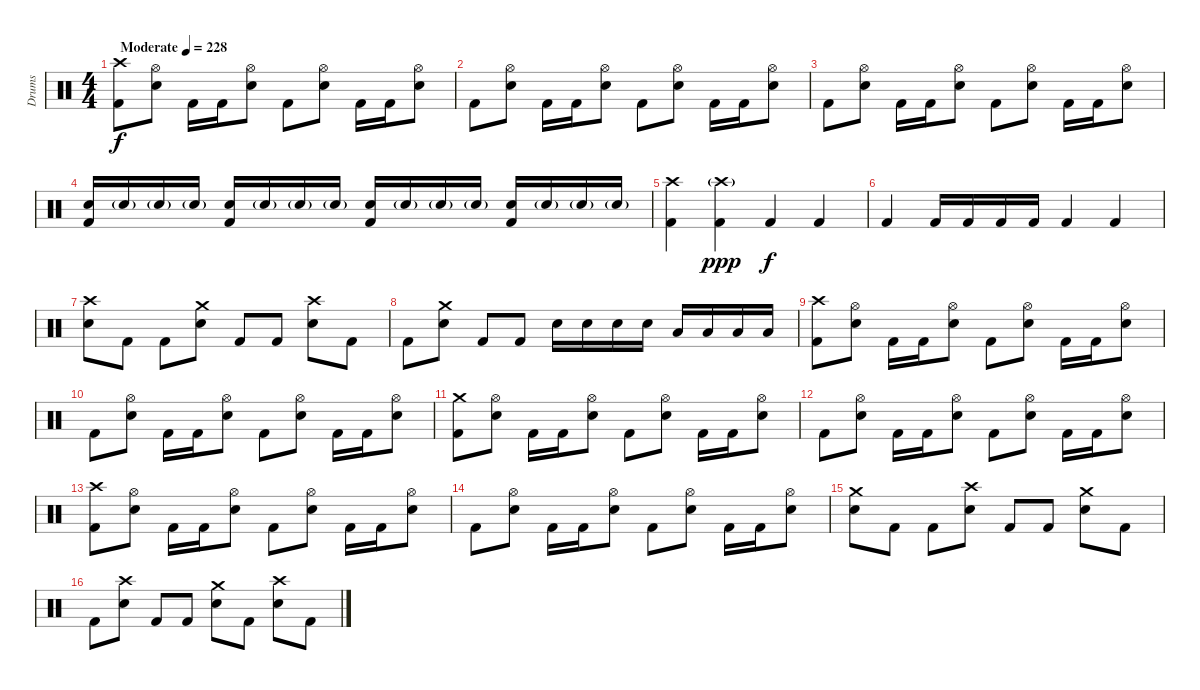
\track ("Drums" "Drums") {instrument percussion}
\staff {score}
\articulation defaults
\ts (4 4)
\tempo (228 "Moderate")
\clef neutral
\ks c
("Crash high (hit)" "Kick (hit) 2").8{dy f} ("Hi-Hat (open)" "Electric Snare (hit)").8 "Kick (hit) 2".16 "Kick (hit) 2".16 ("Hi-Hat (open)" "Electric Snare (hit)").8 "Kick (hit) 2".8 ("Hi-Hat (open)" "Electric Snare (hit)").8 "Kick (hit) 2".16 "Kick (hit) 2".16 ("Hi-Hat (open)" "Electric Snare (hit)").8 |
"Kick (hit) 2".8 ("Hi-Hat (open)" "Electric Snare (hit)").8 "Kick (hit) 2".16 "Kick (hit) 2".16 ("Hi-Hat (open)" "Electric Snare (hit)").8 "Kick (hit) 2".8 ("Hi-Hat (open)" "Electric Snare (hit)").8 "Kick (hit) 2".16 "Kick (hit) 2".16 ("Hi-Hat (open)" "Electric Snare (hit)").8 |
"Kick (hit) 2".8 ("Hi-Hat (open)" "Electric Snare (hit)").8 "Kick (hit) 2".16 "Kick (hit) 2".16 ("Hi-Hat (open)" "Electric Snare (hit)").8 "Kick (hit) 2".8 ("Hi-Hat (open)" "Electric Snare (hit)").8 "Kick (hit) 2".16 "Kick (hit) 2".16 ("Hi-Hat (open)" "Electric Snare (hit)").8 |
("Electric Snare (hit)" "Kick (hit) 2").16 "Electric Snare (hit)"{g}.16 "Electric Snare (hit)"{g}.16 "Electric Snare (hit)"{g}.16 ("Electric Snare (hit)" "Kick (hit) 2").16 "Electric Snare (hit)"{g}.16 "Electric Snare (hit)"{g}.16 "Electric Snare (hit)"{g}.16 ("Electric Snare (hit)" "Kick (hit) 2").16 "Electric Snare (hit)"{g}.16 "Electric Snare (hit)"{g}.16 "Electric Snare (hit)"{g}.16 ("Electric Snare (hit)" "Kick (hit) 2").16 "Electric Snare (hit)"{g}.16 "Electric Snare (hit)"{g}.16 "Electric Snare (hit)"{g}.16 |
("Crash high (hit)" "Kick (hit) 2").4 ("Crash high (hit)"{g} "Kick (hit) 2").4{dy ppp} "Kick (hit) 2".4{dy f} "Kick (hit) 2".4 |
"Kick (hit) 2".4 "Kick (hit) 2".16 "Kick (hit) 2".16 "Kick (hit) 2".16 "Kick (hit) 2".16 "Kick (hit) 2".4 "Kick (hit) 2".4 |
("Crash high (hit)" "Electric Snare (hit)").8 "Kick (hit) 2".8 "Kick (hit) 2".8 ("Crash medium (hit)" "Electric Snare (hit)").8 "Kick (hit) 2".8 "Kick (hit) 2".8 ("Crash high (hit)" "Electric Snare (hit)").8 "Kick (hit) 2".8 |
"Kick (hit) 2".8 ("Crash medium (hit)" "Electric Snare (hit)").8 "Kick (hit) 2".8 "Kick (hit) 2".8 "Electric Snare (hit)".16 "Electric Snare (hit)".16 "Electric Snare (hit)".16 "Electric Snare (hit)".16 "Low Tom (hit)".16 "Low Tom (hit)".16 "Low Tom (hit)".16 "Low Tom (hit)".16 |
("Crash high (hit)" "Kick (hit) 2").8 ("Hi-Hat (open)" "Electric Snare (hit)").8 "Kick (hit) 2".16 "Kick (hit) 2".16 ("Hi-Hat (open)" "Electric Snare (hit)").8 "Kick (hit) 2".8 ("Hi-Hat (open)" "Electric Snare (hit)").8 "Kick (hit) 2".16 "Kick (hit) 2".16 ("Hi-Hat (open)" "Electric Snare (hit)").8 |
"Kick (hit) 2".8 ("Hi-Hat (open)" "Electric Snare (hit)").8 "Kick (hit) 2".16 "Kick (hit) 2".16 ("Hi-Hat (open)" "Electric Snare (hit)").8 "Kick (hit) 2".8 ("Hi-Hat (open)" "Electric Snare (hit)").8 "Kick (hit) 2".16 "Kick (hit) 2".16 ("Hi-Hat (open)" "Electric Snare (hit)").8 |
("Crash medium (hit)" "Kick (hit) 2").8 ("Hi-Hat (open)" "Electric Snare (hit)").8 "Kick (hit) 2".16 "Kick (hit) 2".16 ("Hi-Hat (open)" "Electric Snare (hit)").8 "Kick (hit) 2".8 ("Hi-Hat (open)" "Electric Snare (hit)").8 "Kick (hit) 2".16 "Kick (hit) 2".16 ("Hi-Hat (open)" "Electric Snare (hit)").8 |
"Kick (hit) 2".8 ("Hi-Hat (open)" "Electric Snare (hit)").8 "Kick (hit) 2".16 "Kick (hit) 2".16 ("Hi-Hat (open)" "Electric Snare (hit)").8 "Kick (hit) 2".8 ("Hi-Hat (open)" "Electric Snare (hit)").8 "Kick (hit) 2".16 "Kick (hit) 2".16 ("Hi-Hat (open)" "Electric Snare (hit)").8 |
("Crash high (hit)" "Kick (hit) 2").8 ("Hi-Hat (open)" "Electric Snare (hit)").8 "Kick (hit) 2".16 "Kick (hit) 2".16 ("Hi-Hat (open)" "Electric Snare (hit)").8 "Kick (hit) 2".8 ("Hi-Hat (open)" "Electric Snare (hit)").8 "Kick (hit) 2".16 "Kick (hit) 2".16 ("Hi-Hat (open)" "Electric Snare (hit)").8 |
"Kick (hit) 2".8 ("Hi-Hat (open)" "Electric Snare (hit)").8 "Kick (hit) 2".16 "Kick (hit) 2".16 ("Hi-Hat (open)" "Electric Snare (hit)").8 "Kick (hit) 2".8 ("Hi-Hat (open)" "Electric Snare (hit)").8 "Kick (hit) 2".16 "Kick (hit) 2".16 ("Hi-Hat (open)" "Electric Snare (hit)").8 |
("Crash medium (hit)" "Electric Snare (hit)").8 "Kick (hit) 2".8 "Kick (hit) 2".8 ("Crash high (hit)" "Electric Snare (hit)").8 "Kick (hit) 2".8 "Kick (hit) 2".8 ("Crash medium (hit)" "Electric Snare (hit)").8 "Kick (hit) 2".8 |
"Kick (hit) 2".8 ("Crash high (hit)" "Electric Snare (hit)").8 "Kick (hit) 2".8 "Kick (hit) 2".8 ("Crash medium (hit)" "Electric Snare (hit)").8 "Kick (hit) 2".8 ("Crash high (hit)" "Electric Snare (hit)").8 "Kick (hit) 2".8
